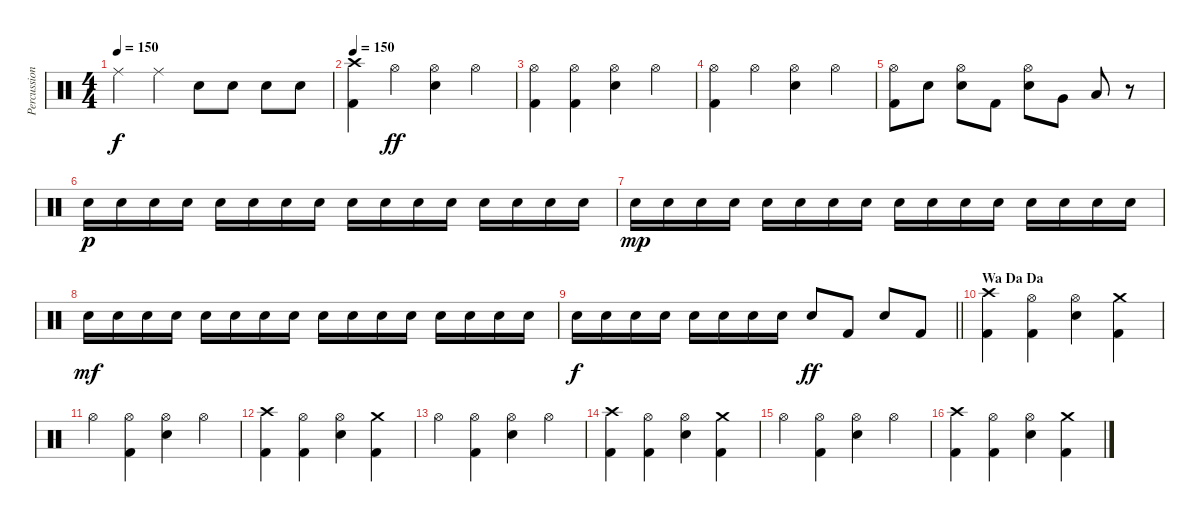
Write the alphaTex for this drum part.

\track ("Percussion" "Percussion") {instrument percussion}
\staff {score}
\articulation defaults
\ts (4 4)
\tempo 150
\clef neutral
\ks c "Ride (middle)".4{dy f} "Ride (middle)".4 "Snare (hit) 2".8 "Snare (hit) 2".8 "Snare (hit) 2".8 "Snare (hit) 2".8
|
\tempo 150
("Crash high (hit)" "Kick (hit) 2").4 "Hi-Hat (open)".4{dy ff} ("Hi-Hat (open)" "Snare (hit) 2").4 "Hi-Hat (open)".4 |
("Hi-Hat (open)" "Kick (hit) 2").4 ("Hi-Hat (open)" "Kick (hit) 2").4 ("Hi-Hat (open)" "Snare (hit) 2").4 "Hi-Hat (open)".4 |
("Hi-Hat (open)" "Kick (hit) 2").4 "Hi-Hat (open)".4 ("Hi-Hat (open)" "Snare (hit) 2").4 "Hi-Hat (open)".4 |
("Hi-Hat (open)" "Kick (hit) 2").8 "Snare (hit) 2".8 ("Hi-Hat (open)" "Snare (hit) 2").8 "Kick (hit) 2".8 ("Hi-Hat (open)" "Snare (hit) 2").8 "Very Low Tom (hit)".8 "Low Floor Tom (hit)".8 r.8 |
"Snare (hit) 2".16{dy p} "Snare (hit) 2".16 "Snare (hit) 2".16 "Snare (hit) 2".16 "Snare (hit) 2".16 "Snare (hit) 2".16 "Snare (hit) 2".16 "Snare (hit) 2".16 "Snare (hit) 2".16 "Snare (hit) 2".16 "Snare (hit) 2".16 "Snare (hit) 2".16 "Snare (hit) 2".16 "Snare (hit) 2".16 "Snare (hit) 2".16 "Snare (hit) 2".16 |
"Snare (hit) 2".16{dy mp} "Snare (hit) 2".16 "Snare (hit) 2".16 "Snare (hit) 2".16 "Snare (hit) 2".16 "Snare (hit) 2".16 "Snare (hit) 2".16 "Snare (hit) 2".16 "Snare (hit) 2".16 "Snare (hit) 2".16 "Snare (hit) 2".16 "Snare (hit) 2".16 "Snare (hit) 2".16 "Snare (hit) 2".16 "Snare (hit) 2".16 "Snare (hit) 2".16 |
"Snare (hit) 2".16{dy mf} "Snare (hit) 2".16 "Snare (hit) 2".16 "Snare (hit) 2".16 "Snare (hit) 2".16 "Snare (hit) 2".16 "Snare (hit) 2".16 "Snare (hit) 2".16 "Snare (hit) 2".16 "Snare (hit) 2".16 "Snare (hit) 2".16 "Snare (hit) 2".16 "Snare (hit) 2".16 "Snare (hit) 2".16 "Snare (hit) 2".16 "Snare (hit) 2".16 |
\barLineRight lightlight "Snare (hit) 2".16{dy f} "Snare (hit) 2".16 "Snare (hit) 2".16 "Snare (hit) 2".16 "Snare (hit) 2".16 "Snare (hit) 2".16 "Snare (hit) 2".16 "Snare (hit) 2".16 "Snare (hit) 2".8{dy ff} "Kick (hit) 2".8 "Snare (hit) 2".8 "Kick (hit) 2".8
|
\section ("" "Wa Da Da")
("Crash high (hit)" "Kick (hit) 2").4 ("Hi-Hat (open)" "Kick (hit) 2").4 ("Hi-Hat (open)" "Snare (hit) 2").4 ("Crash medium (hit)" "Kick (hit) 2").4 |
"Hi-Hat (open)".4 ("Hi-Hat (open)" "Kick (hit) 2").4 ("Hi-Hat (open)" "Snare (hit) 2").4 "Hi-Hat (open)".4 |
("Crash high (hit)" "Kick (hit) 2").4 ("Hi-Hat (open)" "Kick (hit) 2").4 ("Hi-Hat (open)" "Snare (hit) 2").4 ("Crash medium (hit)" "Kick (hit) 2").4 |
"Hi-Hat (open)".4 ("Hi-Hat (open)" "Kick (hit) 2").4 ("Hi-Hat (open)" "Snare (hit) 2").4 "Hi-Hat (open)".4 |
("Crash high (hit)" "Kick (hit) 2").4 ("Hi-Hat (open)" "Kick (hit) 2").4 ("Hi-Hat (open)" "Snare (hit) 2").4 ("Crash medium (hit)" "Kick (hit) 2").4 |
"Hi-Hat (open)".4 ("Hi-Hat (open)" "Kick (hit) 2").4 ("Hi-Hat (open)" "Snare (hit) 2").4 "Hi-Hat (open)".4 |
("Crash high (hit)" "Kick (hit) 2").4 ("Hi-Hat (open)" "Kick (hit) 2").4 ("Hi-Hat (open)" "Snare (hit) 2").4 ("Crash medium (hit)" "Kick (hit) 2").4
